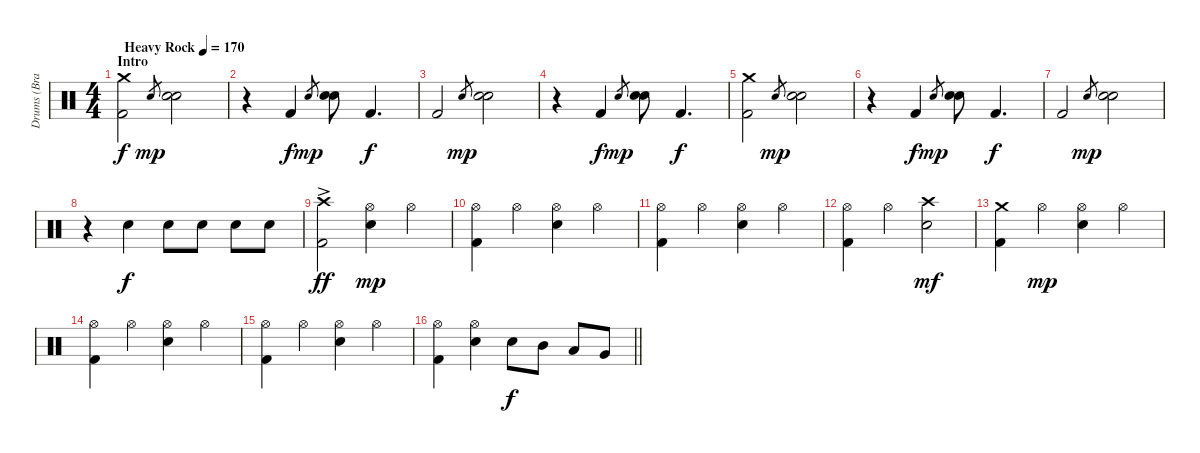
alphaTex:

\track ("Drums (Brandon Saller)" "Drums (Bra") {instrument percussion}
\staff {score}
\articulation defaults
\ts (4 4)
\section ("" "Intro")
\tempo (170 "Heavy Rock")
\clef neutral
\ks c
("Crash medium (hit)" "Kick (hit) 2").2{dy f} "Hand Clap (hit)".8{gr dy mp} ("Hand Clap (hit)" "Electric Snare (hit)").2 |
r.4 "Kick (hit) 2".4{dy f} "Hand Clap (hit)".8{gr dy mp} ("Hand Clap (hit)" "Electric Snare (hit)").8 "Kick (hit) 2".4{d dy f} |
"Kick (hit) 2".2 "Hand Clap (hit)".8{gr dy mp} ("Hand Clap (hit)" "Electric Snare (hit)").2 |
r.4 "Kick (hit) 2".4{dy f} "Hand Clap (hit)".8{gr dy mp} ("Hand Clap (hit)" "Electric Snare (hit)").8 "Kick (hit) 2".4{d dy f} |
("Crash medium (hit)" "Kick (hit) 2").2 "Hand Clap (hit)".8{gr dy mp} ("Hand Clap (hit)" "Electric Snare (hit)").2 |
r.4 "Kick (hit) 2".4{dy f} "Hand Clap (hit)".8{gr dy mp} ("Hand Clap (hit)" "Electric Snare (hit)").8 "Kick (hit) 2".4{d dy f} |
"Kick (hit) 2".2 "Hand Clap (hit)".8{gr dy mp} ("Hand Clap (hit)" "Electric Snare (hit)").2 |
r.4 "Electric Snare (hit)".4{dy f} "Electric Snare (hit)".8 "Electric Snare (hit)".8 "Electric Snare (hit)".8 "Electric Snare (hit)".8 |
("Crash high (hit)"{ac} "Kick (hit) 2").2{dy ff} ("Hi-Hat (open)" "Electric Snare (hit)").4{dy mp} "Hi-Hat (open)".4 |
("Hi-Hat (open)" "Kick (hit) 2").4 "Hi-Hat (open)".4 ("Hi-Hat (open)" "Electric Snare (hit)").4 "Hi-Hat (open)".4 |
("Hi-Hat (open)" "Kick (hit) 2").4 "Hi-Hat (open)".4 ("Hi-Hat (open)" "Electric Snare (hit)").4 "Hi-Hat (open)".4 |
("Hi-Hat (open)" "Kick (hit) 2").4 "Hi-Hat (open)".4 ("Crash high (hit)" "Electric Snare (hit)").2{dy mf} |
("Crash medium (hit)" "Kick (hit) 2").4 "Hi-Hat (open)".4{dy mp} ("Hi-Hat (open)" "Electric Snare (hit)").4 "Hi-Hat (open)".4 |
("Hi-Hat (open)" "Kick (hit) 2").4 "Hi-Hat (open)".4 ("Hi-Hat (open)" "Electric Snare (hit)").4 "Hi-Hat (open)".4 |
("Hi-Hat (open)" "Kick (hit) 2").4 "Hi-Hat (open)".4 ("Hi-Hat (open)" "Electric Snare (hit)").4 "Hi-Hat (open)".4 |
\barLineRight lightlight
("Hi-Hat (open)" "Kick (hit) 2").4 ("Hi-Hat (open)" "Electric Snare (hit)").4 "Electric Snare (hit)".8{dy f} "Mid Tom (hit)".8 "Low Tom (hit)".8 "Very Low Tom (hit)".8
